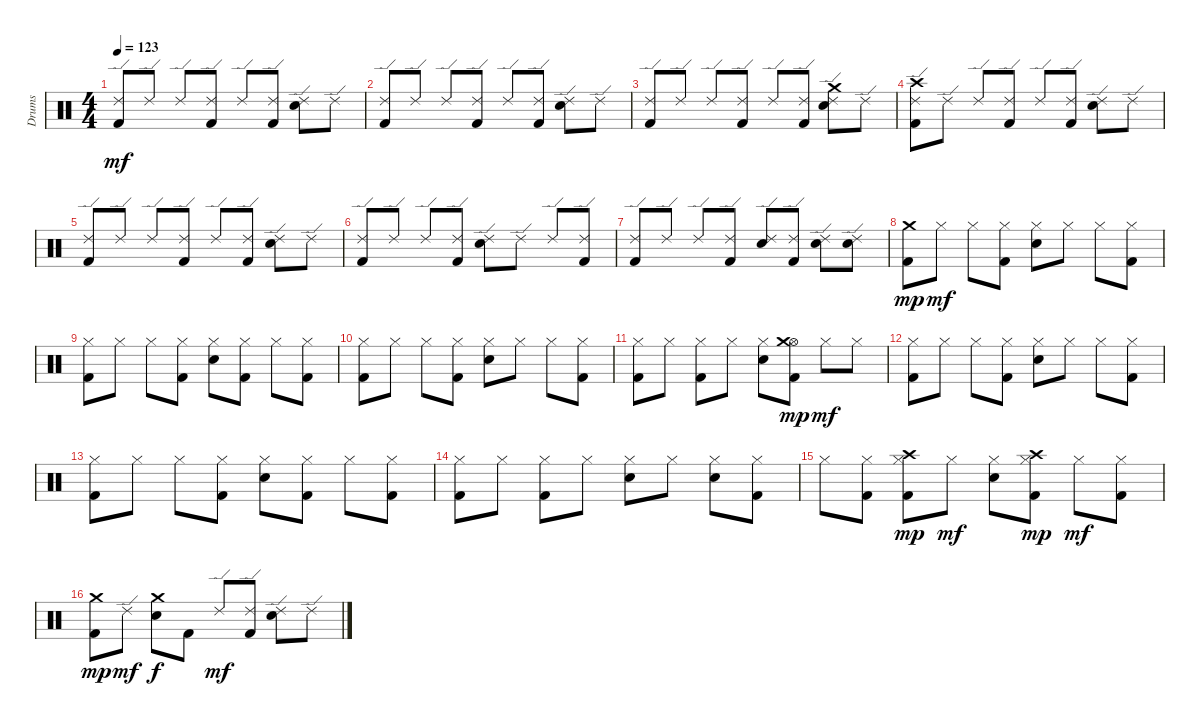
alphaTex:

\track ("Drums" "Drums") {instrument percussion}
\staff {score}
\articulation defaults
\ts (4 4)
\tempo 123
\clef neutral
\ks c
("Kick (hit) 2" "Ride (edge) 2").8{dy mf} "Ride (edge) 2".8 "Ride (edge) 2".8 ("Kick (hit) 2" "Ride (edge) 2").8 "Ride (edge) 2".8 ("Kick (hit) 2" "Ride (edge) 2").8 ("Electric Snare (hit)" "Ride (edge) 2").8 "Ride (edge) 2".8 |
("Kick (hit) 2" "Ride (edge) 2").8 "Ride (edge) 2".8 "Ride (edge) 2".8 ("Kick (hit) 2" "Ride (edge) 2").8 "Ride (edge) 2".8 ("Kick (hit) 2" "Ride (edge) 2").8 ("Electric Snare (hit)" "Ride (edge) 2").8 "Ride (edge) 2".8 |
("Kick (hit) 2" "Ride (edge) 2").8 "Ride (edge) 2".8 "Ride (edge) 2".8 ("Kick (hit) 2" "Ride (edge) 2").8 "Ride (edge) 2".8 ("Kick (hit) 2" "Ride (edge) 2").8 ("Electric Snare (hit)" "Crash medium (hit)" "Ride (edge) 2").8 "Ride (edge) 2".8 |
("Kick (hit) 2" "Crash high (hit)" "Ride (edge) 2").8 "Ride (edge) 2".8 "Ride (edge) 2".8 ("Kick (hit) 2" "Ride (edge) 2").8 "Ride (edge) 2".8 ("Kick (hit) 2" "Ride (edge) 2").8 ("Electric Snare (hit)" "Ride (edge) 2").8 "Ride (edge) 2".8 |
("Kick (hit) 2" "Ride (edge) 2").8 "Ride (edge) 2".8 "Ride (edge) 2".8 ("Kick (hit) 2" "Ride (edge) 2").8 "Ride (edge) 2".8 ("Kick (hit) 2" "Ride (edge) 2").8 ("Electric Snare (hit)" "Ride (edge) 2").8 "Ride (edge) 2".8 |
("Kick (hit) 2" "Ride (edge) 2").8 "Ride (edge) 2".8 "Ride (edge) 2".8 ("Kick (hit) 2" "Ride (edge) 2").8 ("Electric Snare (hit)" "Ride (edge) 2").8 "Ride (edge) 2".8 "Ride (edge) 2".8 ("Kick (hit) 2" "Ride (edge) 2").8 |
("Kick (hit) 2" "Ride (edge) 2").8 "Ride (edge) 2".8 "Ride (edge) 2".8 ("Kick (hit) 2" "Ride (edge) 2").8 ("Electric Snare (hit)" "Ride (edge) 2").8 ("Kick (hit) 2" "Ride (edge) 2").8 ("Electric Snare (hit)" "Ride (edge) 2").8 ("Electric Snare (hit)" "Ride (edge) 2").8 |
("Kick (hit) 2" "Crash medium (hit)").8{dy mp} "Hi-Hat (closed)".8{dy mf} "Hi-Hat (closed)".8 ("Kick (hit) 2" "Hi-Hat (closed)").8 ("Electric Snare (hit)" "Hi-Hat (closed)").8 "Hi-Hat (closed)".8 "Hi-Hat (closed)".8 ("Kick (hit) 2" "Hi-Hat (closed)").8 |
("Kick (hit) 2" "Hi-Hat (closed)").8 "Hi-Hat (closed)".8 "Hi-Hat (closed)".8 ("Kick (hit) 2" "Hi-Hat (closed)").8 ("Electric Snare (hit)" "Hi-Hat (closed)").8 ("Kick (hit) 2" "Hi-Hat (closed)").8 "Hi-Hat (closed)".8 ("Kick (hit) 2" "Hi-Hat (closed)").8 |
("Kick (hit) 2" "Hi-Hat (closed)").8 "Hi-Hat (closed)".8 "Hi-Hat (closed)".8 ("Kick (hit) 2" "Hi-Hat (closed)").8 ("Electric Snare (hit)" "Hi-Hat (closed)").8 "Hi-Hat (closed)".8 "Hi-Hat (closed)".8 ("Kick (hit) 2" "Hi-Hat (closed)").8 |
("Kick (hit) 2" "Hi-Hat (closed)").8 "Hi-Hat (closed)".8 ("Kick (hit) 2" "Hi-Hat (closed)").8 "Hi-Hat (closed)".8 ("Electric Snare (hit)" "Hi-Hat (closed)").8 ("Kick (hit) 2" "Hi-Hat (open)" "Crash medium (hit)").8{dy mp} "Hi-Hat (closed)".8{dy mf} "Hi-Hat (closed)".8 |
("Kick (hit) 2" "Hi-Hat (closed)").8 "Hi-Hat (closed)".8 "Hi-Hat (closed)".8 ("Kick (hit) 2" "Hi-Hat (closed)").8 ("Electric Snare (hit)" "Hi-Hat (closed)").8 "Hi-Hat (closed)".8 "Hi-Hat (closed)".8 ("Kick (hit) 2" "Hi-Hat (closed)").8 |
("Kick (hit) 2" "Hi-Hat (closed)").8 "Hi-Hat (closed)".8 "Hi-Hat (closed)".8 ("Kick (hit) 2" "Hi-Hat (closed)").8 ("Electric Snare (hit)" "Hi-Hat (closed)").8 ("Kick (hit) 2" "Hi-Hat (closed)").8 "Hi-Hat (closed)".8 ("Kick (hit) 2" "Hi-Hat (closed)").8 |
("Kick (hit) 2" "Hi-Hat (closed)").8 "Hi-Hat (closed)".8 ("Kick (hit) 2" "Hi-Hat (closed)").8 "Hi-Hat (closed)".8 ("Electric Snare (hit)" "Hi-Hat (closed)").8 "Hi-Hat (closed)".8 ("Electric Snare (hit)" "Hi-Hat (closed)").8 ("Kick (hit) 2" "Hi-Hat (closed)").8 |
"Hi-Hat (closed)".8 ("Kick (hit) 2" "Hi-Hat (closed)").8 ("Kick (hit) 2" "Hi-Hat (closed)" "Crash high (hit)").8{dy mp} "Hi-Hat (closed)".8{dy mf} ("Electric Snare (hit)" "Hi-Hat (closed)").8 ("Kick (hit) 2" "Hi-Hat (closed)" "Crash high (hit)").8{dy mp} "Hi-Hat (closed)".8{dy mf} ("Kick (hit) 2" "Hi-Hat (closed)").8 |
("Kick (hit) 2" "Crash medium (hit)").8{dy mp} "Ride (edge) 2".8{dy mf} ("Electric Snare (hit)" "Crash medium (hit)").8{dy f} "Kick (hit) 2".8 "Ride (edge) 2".8{dy mf} ("Kick (hit) 2" "Ride (edge) 2").8 ("Electric Snare (hit)" "Ride (edge) 2").8 "Ride (edge) 2".8
